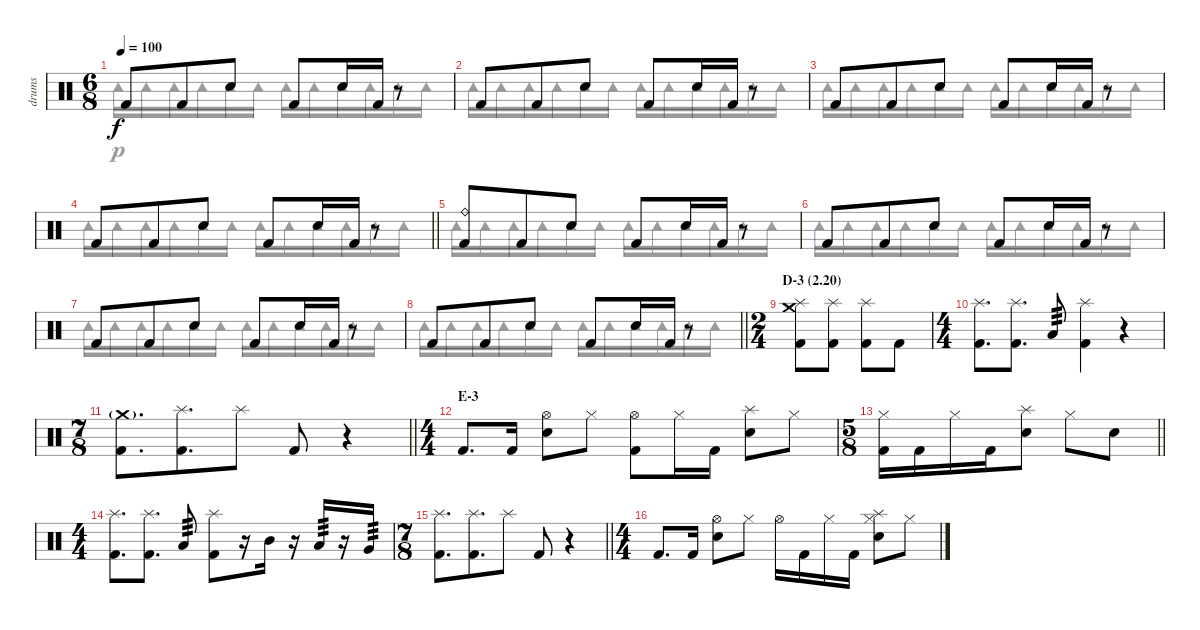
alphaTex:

\track ("drums" "drums") {instrument percussion}
\staff {score}
\articulation defaults
\voice
\ts (6 8)
\tempo 100
\clef neutral
\ks c "Kick (hit) 2".8{dy f} "Kick (hit) 2".8 "Electric Snare (hit)".8 "Kick (hit) 2".8 "Electric Snare (hit)".16 "Kick (hit) 2".16
r.8 |
"Kick (hit) 2".8 "Kick (hit) 2".8 "Electric Snare (hit)".8 "Kick (hit) 2".8 "Electric Snare (hit)".16 "Kick (hit) 2".16 r.8 |
"Kick (hit) 2".8 "Kick (hit) 2".8 "Electric Snare (hit)".8 "Kick (hit) 2".8 "Electric Snare (hit)".16 "Kick (hit) 2".16 r.8 |
\barLineRight lightlight "Kick (hit) 2".8 "Kick (hit) 2".8 "Electric Snare (hit)".8 "Kick (hit) 2".8 "Electric Snare (hit)".16 "Kick (hit) 2".16
r.8 |
("Ride (bell)" "Kick (hit) 2").8 "Kick (hit) 2".8 "Electric Snare (hit)".8 "Kick (hit) 2".8 "Electric Snare (hit)".16 "Kick (hit) 2".16 r.8 |
"Kick (hit) 2".8 "Kick (hit) 2".8 "Electric Snare (hit)".8 "Kick (hit) 2".8 "Electric Snare (hit)".16 "Kick (hit) 2".16 r.8 |
"Kick (hit) 2".8 "Kick (hit) 2".8 "Electric Snare (hit)".8 "Kick (hit) 2".8 "Electric Snare (hit)".16 "Kick (hit) 2".16 r.8 |
\barLineRight lightlight "Kick (hit) 2".8 "Kick (hit) 2".8 "Electric Snare (hit)".8 "Kick (hit) 2".8 "Electric Snare (hit)".16 "Kick (hit) 2".16
r.8 |
\ts (2 4)
\section ("" "D-3 (2.20)")
("Crash medium (hit)" "Splash (hit)" "Kick (hit) 2").8 ("Splash (hit)" "Kick (hit) 2").8 ("Splash (hit)" "Kick (hit) 2").8 "Kick (hit) 2".8 |
\ts (4 4)
("Splash (hit)" "Kick (hit) 2").8{d} ("Splash (hit)" "Kick (hit) 2").8{d} "Low Tom (hit)".8{tp 3} ("Splash (hit)" "Kick (hit) 2").4 r.4 |
\ts (7 8)
\barLineRight lightlight
("Crash medium (hit)"{g} "Kick (hit) 2").8{d} ("Splash (hit)" "Kick (hit) 2").8{d} "Splash (hit)".8 "Kick (hit) 2".8 r.4 |
\ts (4 4)
\section ("" "E-3")
"Kick (hit) 2".8{d} "Kick (hit) 2".16 ("Hi-Hat (open)" "Electric Snare (hit)").8 "Hi-Hat (closed)".8 ("Hi-Hat (open)" "Kick (hit) 2").8 "Hi-Hat (closed)".16 "Kick (hit) 2".16 ("Splash (hit)" "Electric Snare (hit)").8 "Hi-Hat (closed)".8 |
\ts (5 8)
\barLineRight lightlight
("Hi-Hat (closed)" "Kick (hit) 2").16 "Kick (hit) 2".16 "Hi-Hat (closed)".16 "Kick (hit) 2".16 ("Splash (hit)" "Electric Snare (hit)").8 "Hi-Hat (closed)".8 "Electric Snare (hit)".8 |
\ts (4 4)
("Splash (hit)" "Kick (hit) 2").8{d} ("Splash (hit)" "Kick (hit) 2").8{d} "Low Tom (hit)".8{tp 3} ("Splash (hit)" "Kick (hit) 2").8 r.16 "Mid Tom (hit)".16 r.16 "Low Tom (hit)".16{tp 3} r.16 "Very Low Tom (hit)".16{tp 3} |
\ts (7 8)
\barLineRight lightlight
("Splash (hit)" "Kick (hit) 2").8{d} ("Splash (hit)" "Kick (hit) 2").8{d} "Splash (hit)".8 "Kick (hit) 2".8 r.4 |
\ts (4 4)
"Kick (hit) 2".8{d} "Kick (hit) 2".16 ("Hi-Hat (open)" "Electric Snare (hit)").8 "Hi-Hat (closed)".8 "Hi-Hat (open)".16 "Kick (hit) 2".16 "Hi-Hat (closed)".16 "Kick (hit) 2".16 ("Hi-Hat (closed)" "Splash (hit)" "Electric Snare (hit)").8 "Hi-Hat (closed)".8
\voice
\clef neutral
\ottava regular
\simile none
\ks c "Tambourine (hit)".16{dy p} "Tambourine (hit)".16 "Tambourine (hit)".16 "Tambourine (hit)".16 "Tambourine (hit)".16 "Tambourine (hit)".16 "Tambourine (hit)".16 "Tambourine (hit)".16 "Tambourine (hit)".16 "Tambourine (hit)".16 "Tambourine (hit)".16 "Tambourine (hit)".16
|
"Tambourine (hit)".16 "Tambourine (hit)".16 "Tambourine (hit)".16 "Tambourine (hit)".16 "Tambourine (hit)".16 "Tambourine (hit)".16 "Tambourine (hit)".16 "Tambourine (hit)".16 "Tambourine (hit)".16 "Tambourine (hit)".16 "Tambourine (hit)".16 "Tambourine (hit)".16 |
"Tambourine (hit)".16 "Tambourine (hit)".16 "Tambourine (hit)".16 "Tambourine (hit)".16 "Tambourine (hit)".16 "Tambourine (hit)".16 "Tambourine (hit)".16 "Tambourine (hit)".16 "Tambourine (hit)".16 "Tambourine (hit)".16 "Tambourine (hit)".16 "Tambourine (hit)".16 |
\barLineRight lightlight "Tambourine (hit)".16 "Tambourine (hit)".16 "Tambourine (hit)".16 "Tambourine (hit)".16 "Tambourine (hit)".16 "Tambourine (hit)".16 "Tambourine (hit)".16 "Tambourine (hit)".16 "Tambourine (hit)".16 "Tambourine (hit)".16 "Tambourine (hit)".16 "Tambourine (hit)".16
|
"Tambourine (hit)".16 "Tambourine (hit)".16 "Tambourine (hit)".16 "Tambourine (hit)".16 "Tambourine (hit)".16 "Tambourine (hit)".16 "Tambourine (hit)".16 "Tambourine (hit)".16 "Tambourine (hit)".16 "Tambourine (hit)".16 "Tambourine (hit)".16 "Tambourine (hit)".16 |
"Tambourine (hit)".16 "Tambourine (hit)".16 "Tambourine (hit)".16 "Tambourine (hit)".16 "Tambourine (hit)".16 "Tambourine (hit)".16 "Tambourine (hit)".16 "Tambourine (hit)".16 "Tambourine (hit)".16 "Tambourine (hit)".16 "Tambourine (hit)".16 "Tambourine (hit)".16 |
"Tambourine (hit)".16 "Tambourine (hit)".16 "Tambourine (hit)".16 "Tambourine (hit)".16 "Tambourine (hit)".16 "Tambourine (hit)".16 "Tambourine (hit)".16 "Tambourine (hit)".16 "Tambourine (hit)".16 "Tambourine (hit)".16 "Tambourine (hit)".16 "Tambourine (hit)".16 |
\barLineRight lightlight "Tambourine (hit)".16 "Tambourine (hit)".16 "Tambourine (hit)".16 "Tambourine (hit)".16 "Tambourine (hit)".16 "Tambourine (hit)".16 "Tambourine (hit)".16 "Tambourine (hit)".16 "Tambourine (hit)".16 "Tambourine (hit)".16 "Tambourine (hit)".16 "Tambourine (hit)".16
|
|
|
\barLineRight lightlight
|
|
\barLineRight lightlight
|
|
\barLineRight lightlight
|
